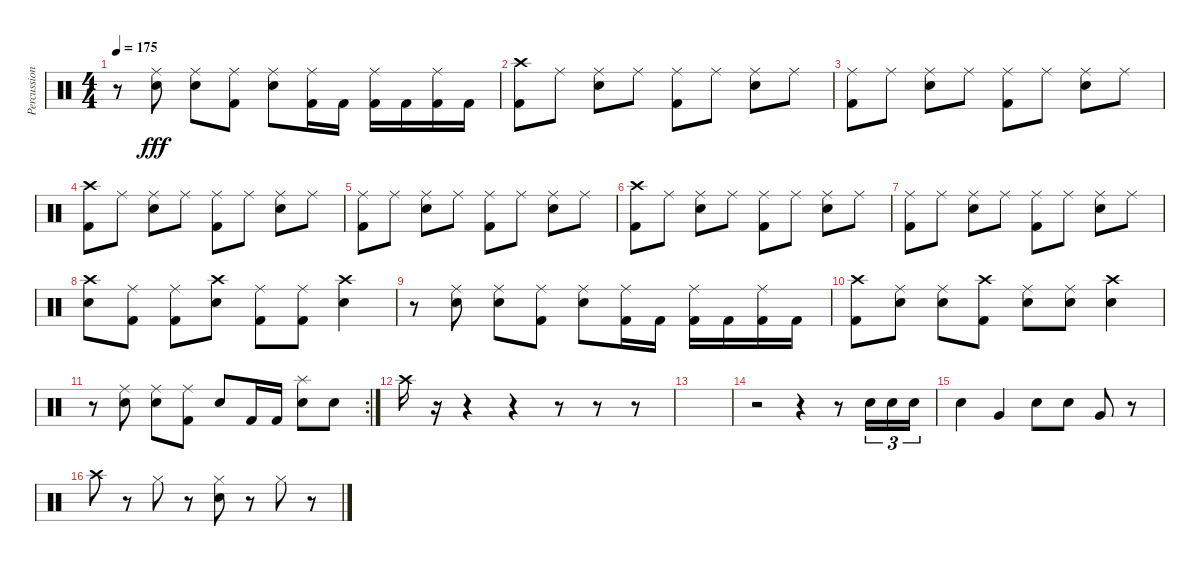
\track ("Percussion" "Percussion") {instrument percussion}
\staff {score}
\articulation defaults
\ts (4 4)
\tempo 175
\clef neutral
\ks c
r.8{dy fff} ("Ride (middle)" "Electric Snare (hit)").8 ("Ride (middle)" "Electric Snare (hit)").8 ("Ride (middle)" "Kick (hit) 2").8 ("Ride (middle)" "Electric Snare (hit)").8 ("Ride (middle)" "Kick (hit) 2").16 "Kick (hit) 2".16 ("Ride (middle)" "Kick (hit) 2").16 "Kick (hit) 2".16 ("Ride (middle)" "Kick (hit) 2").16 "Kick (hit) 2".16 |
("Crash high (hit)" "Kick (hit) 2").8 "Ride (middle)".8 ("Ride (middle)" "Electric Snare (hit)").8 "Ride (middle)".8 ("Ride (middle)" "Kick (hit) 2").8 "Ride (middle)".8 ("Ride (middle)" "Electric Snare (hit)").8 "Ride (middle)".8 |
("Ride (middle)" "Kick (hit) 2").8 "Ride (middle)".8 ("Ride (middle)" "Electric Snare (hit)").8 "Ride (middle)".8 ("Ride (middle)" "Kick (hit) 2").8 "Ride (middle)".8 ("Ride (middle)" "Electric Snare (hit)").8 "Ride (middle)".8 |
("Crash high (hit)" "Kick (hit) 2").8 "Ride (middle)".8 ("Ride (middle)" "Electric Snare (hit)").8 "Ride (middle)".8 ("Ride (middle)" "Kick (hit) 2").8 "Ride (middle)".8 ("Ride (middle)" "Electric Snare (hit)").8 "Ride (middle)".8 |
("Ride (middle)" "Kick (hit) 2").8 "Ride (middle)".8 ("Ride (middle)" "Electric Snare (hit)").8 "Ride (middle)".8 ("Ride (middle)" "Kick (hit) 2").8 "Ride (middle)".8 ("Ride (middle)" "Electric Snare (hit)").8 "Ride (middle)".8 |
("Crash high (hit)" "Kick (hit) 2").8 "Ride (middle)".8 ("Ride (middle)" "Electric Snare (hit)").8 "Ride (middle)".8 ("Ride (middle)" "Kick (hit) 2").8 "Ride (middle)".8 ("Ride (middle)" "Electric Snare (hit)").8 "Ride (middle)".8 |
("Ride (middle)" "Kick (hit) 2").8 "Ride (middle)".8 ("Ride (middle)" "Electric Snare (hit)").8 "Ride (middle)".8 ("Ride (middle)" "Kick (hit) 2").8 "Ride (middle)".8 ("Ride (middle)" "Electric Snare (hit)").8 "Ride (middle)".8 |
("Crash high (hit)" "Electric Snare (hit)").8 ("Ride (middle)" "Kick (hit) 2").8 ("Ride (middle)" "Kick (hit) 2").8 ("Crash high (hit)" "Electric Snare (hit)").8 ("Ride (middle)" "Kick (hit) 2").8 ("Ride (middle)" "Kick (hit) 2").8 ("Crash high (hit)" "Electric Snare (hit)").4 |
r.8 ("Ride (middle)" "Electric Snare (hit)").8 ("Ride (middle)" "Electric Snare (hit)").8 ("Ride (middle)" "Kick (hit) 2").8 ("Ride (middle)" "Electric Snare (hit)").8 ("Ride (middle)" "Kick (hit) 2").16 "Kick (hit) 2".16 ("Ride (middle)" "Kick (hit) 2").16 "Kick (hit) 2".16 ("Ride (middle)" "Kick (hit) 2").16 "Kick (hit) 2".16 |
("Crash high (hit)" "Kick (hit) 2").8 ("Ride (middle)" "Electric Snare (hit)").8 ("Ride (middle)" "Electric Snare (hit)").8 ("Crash high (hit)" "Kick (hit) 2").8 ("Ride (middle)" "Electric Snare (hit)").8 ("Ride (middle)" "Electric Snare (hit)").8 ("Crash high (hit)" "Electric Snare (hit)").4 |
\rc 2
r.8 ("Ride (middle)" "Electric Snare (hit)").8 ("Ride (middle)" "Electric Snare (hit)").8 ("Ride (middle)" "Kick (hit) 2").8 "Electric Snare (hit)".8 "Kick (hit) 2".16 "Kick (hit) 2".16 ("Splash (hit)" "Electric Snare (hit)").8 "Electric Snare (hit)".8 |
"Crash high (hit)".16 r.16 r.4 r.4 r.8 r.8 r.8 |
|
r.2 r.4 r.8 "Electric Snare (hit)".16{tu (3 2)} "Electric Snare (hit)".16{tu (3 2)} "Electric Snare (hit)".16{tu (3 2)} |
"Electric Snare (hit)".4 "Very Low Tom (hit)".4 "Electric Snare (hit)".8 "Electric Snare (hit)".8 "Very Low Tom (hit)".8 r.8 |
"Crash high (hit)".8 r.8 "Hi-Hat (closed)".8 r.8 ("Hi-Hat (closed)" "Electric Snare (hit)").8 r.8 "Hi-Hat (closed)".8 r.8
